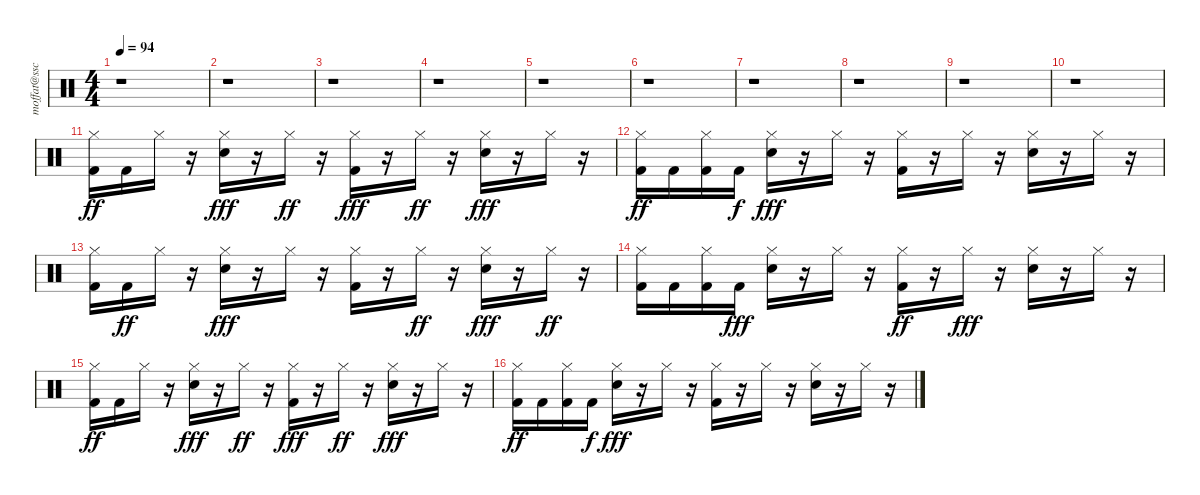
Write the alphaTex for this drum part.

\track ("moffat@sscl." "moffat@ssc") {instrument percussion}
\staff {score}
\articulation defaults
\ts (4 4)
\tempo 94
\clef neutral
\ks c
r.1{dy ff} |
r.1 |
r.1 |
r.1 |
r.1 |
r.1 |
r.1 |
r.1 |
r.1 |
r.1 |
("Kick (hit) 2" "Hi-Hat (closed)").16 "Kick (hit) 2".16 "Hi-Hat (closed)".16 r.16 ("Hi-Hat (closed)" "Snare (hit) 2").16{dy fff} r.16 "Hi-Hat (closed)".16{dy ff} r.16 ("Kick (hit) 2" "Hi-Hat (closed)").16{dy fff} r.16 "Hi-Hat (closed)".16{dy ff} r.16 ("Snare (hit) 2" "Hi-Hat (closed)").16{dy fff} r.16 "Hi-Hat (closed)".16 r.16 |
("Hi-Hat (closed)" "Kick (hit) 2").16{dy ff} "Kick (hit) 2".16 ("Hi-Hat (closed)" "Kick (hit) 2").16 "Kick (hit) 2".16{dy f} ("Hi-Hat (closed)" "Snare (hit) 2").16{dy fff} r.16 "Hi-Hat (closed)".16 r.16 ("Hi-Hat (closed)" "Kick (hit) 2").16 r.16 "Hi-Hat (closed)".16 r.16 ("Snare (hit) 2" "Hi-Hat (closed)").16 r.16 "Hi-Hat (closed)".16 r.16 |
("Kick (hit) 2" "Hi-Hat (closed)").16 "Kick (hit) 2".16{dy ff} "Hi-Hat (closed)".16 r.16 ("Snare (hit) 2" "Hi-Hat (closed)").16{dy fff} r.16 "Hi-Hat (closed)".16 r.16 ("Kick (hit) 2" "Hi-Hat (closed)").16 r.16 "Hi-Hat (closed)".16{dy ff} r.16 ("Snare (hit) 2" "Hi-Hat (closed)").16{dy fff} r.16 "Hi-Hat (closed)".16{dy ff} r.16 |
("Hi-Hat (closed)" "Kick (hit) 2").16 "Kick (hit) 2".16 ("Hi-Hat (closed)" "Kick (hit) 2").16 "Kick (hit) 2".16{dy fff} ("Hi-Hat (closed)" "Snare (hit) 2").16 r.16 "Hi-Hat (closed)".16 r.16 ("Hi-Hat (closed)" "Kick (hit) 2").16{dy ff} r.16 "Hi-Hat (closed)".16{dy fff} r.16 ("Hi-Hat (closed)" "Snare (hit) 2").16 r.16 "Hi-Hat (closed)".16 r.16 |
("Kick (hit) 2" "Hi-Hat (closed)").16{dy ff} "Kick (hit) 2".16 "Hi-Hat (closed)".16 r.16 ("Hi-Hat (closed)" "Snare (hit) 2").16{dy fff} r.16 "Hi-Hat (closed)".16{dy ff} r.16 ("Kick (hit) 2" "Hi-Hat (closed)").16{dy fff} r.16 "Hi-Hat (closed)".16{dy ff} r.16 ("Snare (hit) 2" "Hi-Hat (closed)").16{dy fff} r.16 "Hi-Hat (closed)".16 r.16 |
("Hi-Hat (closed)" "Kick (hit) 2").16{dy ff} "Kick (hit) 2".16 ("Hi-Hat (closed)" "Kick (hit) 2").16 "Kick (hit) 2".16{dy f} ("Hi-Hat (closed)" "Snare (hit) 2").16{dy fff} r.16 "Hi-Hat (closed)".16 r.16 ("Hi-Hat (closed)" "Kick (hit) 2").16 r.16 "Hi-Hat (closed)".16 r.16 ("Snare (hit) 2" "Hi-Hat (closed)").16 r.16 "Hi-Hat (closed)".16 r.16
